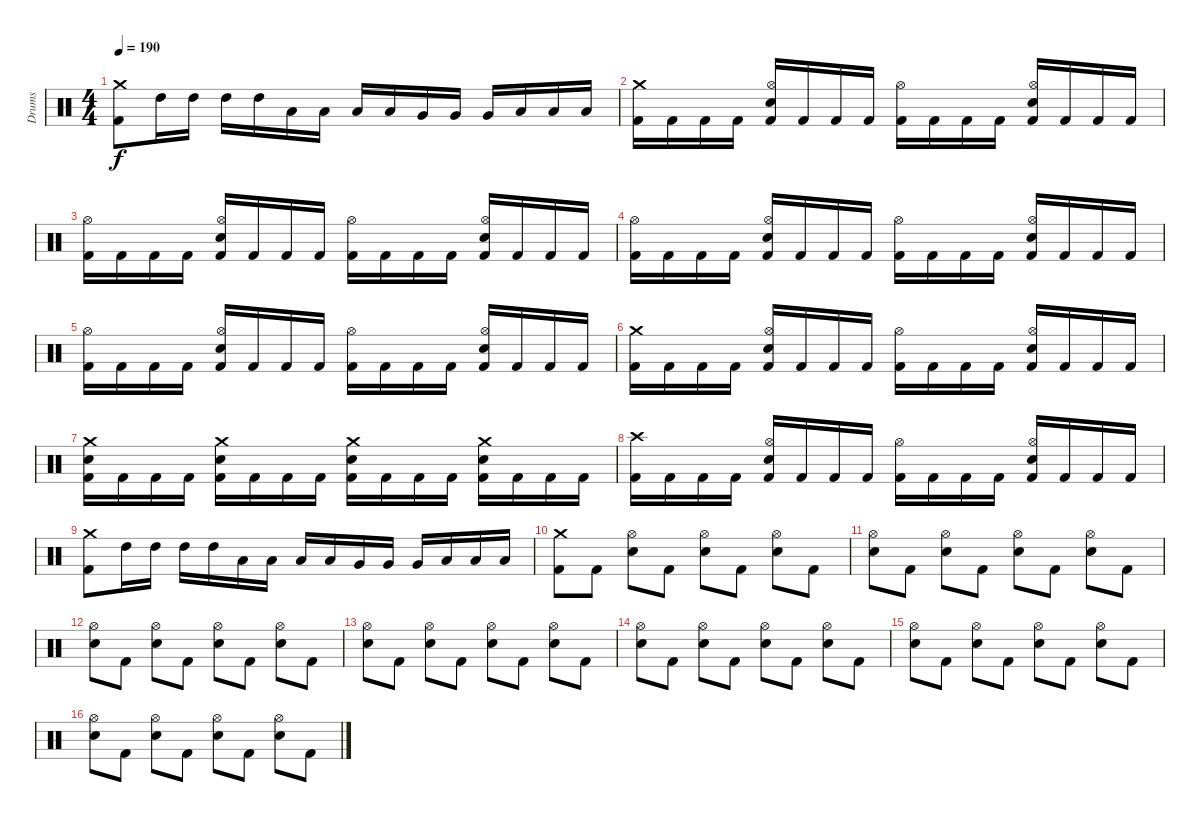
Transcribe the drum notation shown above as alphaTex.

\track ("Drums" "Drums") {instrument percussion}
\staff {score}
\articulation defaults
\ts (4 4)
\tempo 190
\clef neutral
\ks c
("Crash medium (hit)" "Kick (hit) 2").8{dy f} "High Tom (hit)".16 "High Tom (hit)".16 "High Tom (hit)".16 "High Tom (hit)".16 "Low Tom (hit)".16 "Low Tom (hit)".16 "Low Tom (hit)".16 "Low Tom (hit)".16 "Very Low Tom (hit)".16 "Very Low Tom (hit)".16 "Very Low Tom (hit)".16 "Low Floor Tom (hit)".16 "Low Floor Tom (hit)".16 "Low Floor Tom (hit)".16 |
("Crash medium (hit)" "Kick (hit) 2").16 "Kick (hit) 2".16 "Kick (hit) 2".16 "Kick (hit) 2".16 ("Hi-Hat (open)" "Electric Snare (hit)" "Kick (hit) 2").16 "Kick (hit) 2".16 "Kick (hit) 2".16 "Kick (hit) 2".16 ("Hi-Hat (open)" "Kick (hit) 2").16 "Kick (hit) 2".16 "Kick (hit) 2".16 "Kick (hit) 2".16 ("Hi-Hat (open)" "Electric Snare (hit)" "Kick (hit) 2").16 "Kick (hit) 2".16 "Kick (hit) 2".16 "Kick (hit) 2".16 |
("Hi-Hat (open)" "Kick (hit) 2").16 "Kick (hit) 2".16 "Kick (hit) 2".16 "Kick (hit) 2".16 ("Hi-Hat (open)" "Electric Snare (hit)" "Kick (hit) 2").16 "Kick (hit) 2".16 "Kick (hit) 2".16 "Kick (hit) 2".16 ("Hi-Hat (open)" "Kick (hit) 2").16 "Kick (hit) 2".16 "Kick (hit) 2".16 "Kick (hit) 2".16 ("Hi-Hat (open)" "Electric Snare (hit)" "Kick (hit) 2").16 "Kick (hit) 2".16 "Kick (hit) 2".16 "Kick (hit) 2".16 |
("Hi-Hat (open)" "Kick (hit) 2").16 "Kick (hit) 2".16 "Kick (hit) 2".16 "Kick (hit) 2".16 ("Hi-Hat (open)" "Electric Snare (hit)" "Kick (hit) 2").16 "Kick (hit) 2".16 "Kick (hit) 2".16 "Kick (hit) 2".16 ("Hi-Hat (open)" "Kick (hit) 2").16 "Kick (hit) 2".16 "Kick (hit) 2".16 "Kick (hit) 2".16 ("Hi-Hat (open)" "Electric Snare (hit)" "Kick (hit) 2").16 "Kick (hit) 2".16 "Kick (hit) 2".16 "Kick (hit) 2".16 |
("Hi-Hat (open)" "Kick (hit) 2").16 "Kick (hit) 2".16 "Kick (hit) 2".16 "Kick (hit) 2".16 ("Hi-Hat (open)" "Electric Snare (hit)" "Kick (hit) 2").16 "Kick (hit) 2".16 "Kick (hit) 2".16 "Kick (hit) 2".16 ("Hi-Hat (open)" "Kick (hit) 2").16 "Kick (hit) 2".16 "Kick (hit) 2".16 "Kick (hit) 2".16 ("Hi-Hat (open)" "Electric Snare (hit)" "Kick (hit) 2").16 "Kick (hit) 2".16 "Kick (hit) 2".16 "Kick (hit) 2".16 |
("Crash medium (hit)" "Kick (hit) 2").16 "Kick (hit) 2".16 "Kick (hit) 2".16 "Kick (hit) 2".16 ("Hi-Hat (open)" "Electric Snare (hit)" "Kick (hit) 2").16 "Kick (hit) 2".16 "Kick (hit) 2".16 "Kick (hit) 2".16 ("Hi-Hat (open)" "Kick (hit) 2").16 "Kick (hit) 2".16 "Kick (hit) 2".16 "Kick (hit) 2".16 ("Hi-Hat (open)" "Electric Snare (hit)" "Kick (hit) 2").16 "Kick (hit) 2".16 "Kick (hit) 2".16 "Kick (hit) 2".16 |
("Crash medium (hit)" "Electric Snare (hit)" "Kick (hit) 2").16 "Kick (hit) 2".16 "Kick (hit) 2".16 "Kick (hit) 2".16 ("Crash medium (hit)" "Electric Snare (hit)" "Kick (hit) 2").16 "Kick (hit) 2".16 "Kick (hit) 2".16 "Kick (hit) 2".16 ("Crash medium (hit)" "Electric Snare (hit)" "Kick (hit) 2").16 "Kick (hit) 2".16 "Kick (hit) 2".16 "Kick (hit) 2".16 ("Crash medium (hit)" "Electric Snare (hit)" "Kick (hit) 2").16 "Kick (hit) 2".16 "Kick (hit) 2".16 "Kick (hit) 2".16 |
("Crash high (hit)" "Kick (hit) 2").16 "Kick (hit) 2".16 "Kick (hit) 2".16 "Kick (hit) 2".16 ("Hi-Hat (open)" "Electric Snare (hit)" "Kick (hit) 2").16 "Kick (hit) 2".16 "Kick (hit) 2".16 "Kick (hit) 2".16 ("Hi-Hat (open)" "Kick (hit) 2").16 "Kick (hit) 2".16 "Kick (hit) 2".16 "Kick (hit) 2".16 ("Hi-Hat (open)" "Electric Snare (hit)" "Kick (hit) 2").16 "Kick (hit) 2".16 "Kick (hit) 2".16 "Kick (hit) 2".16 |
("Crash medium (hit)" "Kick (hit) 2").8 "High Tom (hit)".16 "High Tom (hit)".16 "High Tom (hit)".16 "High Tom (hit)".16 "Low Tom (hit)".16 "Low Tom (hit)".16 "Low Tom (hit)".16 "Low Tom (hit)".16 "Very Low Tom (hit)".16 "Very Low Tom (hit)".16 "Very Low Tom (hit)".16 "Low Floor Tom (hit)".16 "Low Floor Tom (hit)".16 "Low Floor Tom (hit)".16 |
("Crash medium (hit)" "Kick (hit) 2").8 "Kick (hit) 2".8 ("Hi-Hat (open)" "Electric Snare (hit)").8 "Kick (hit) 2".8 ("Hi-Hat (open)" "Electric Snare (hit)").8 "Kick (hit) 2".8 ("Hi-Hat (open)" "Electric Snare (hit)").8 "Kick (hit) 2".8 |
("Hi-Hat (open)" "Electric Snare (hit)").8 "Kick (hit) 2".8 ("Hi-Hat (open)" "Electric Snare (hit)").8 "Kick (hit) 2".8 ("Hi-Hat (open)" "Electric Snare (hit)").8 "Kick (hit) 2".8 ("Hi-Hat (open)" "Electric Snare (hit)").8 "Kick (hit) 2".8 |
("Hi-Hat (open)" "Electric Snare (hit)").8 "Kick (hit) 2".8 ("Hi-Hat (open)" "Electric Snare (hit)").8 "Kick (hit) 2".8 ("Hi-Hat (open)" "Electric Snare (hit)").8 "Kick (hit) 2".8 ("Hi-Hat (open)" "Electric Snare (hit)").8 "Kick (hit) 2".8 |
("Hi-Hat (open)" "Electric Snare (hit)").8 "Kick (hit) 2".8 ("Hi-Hat (open)" "Electric Snare (hit)").8 "Kick (hit) 2".8 ("Hi-Hat (open)" "Electric Snare (hit)").8 "Kick (hit) 2".8 ("Hi-Hat (open)" "Electric Snare (hit)").8 "Kick (hit) 2".8 |
("Hi-Hat (open)" "Electric Snare (hit)").8 "Kick (hit) 2".8 ("Hi-Hat (open)" "Electric Snare (hit)").8 "Kick (hit) 2".8 ("Hi-Hat (open)" "Electric Snare (hit)").8 "Kick (hit) 2".8 ("Hi-Hat (open)" "Electric Snare (hit)").8 "Kick (hit) 2".8 |
("Hi-Hat (open)" "Electric Snare (hit)").8 "Kick (hit) 2".8 ("Hi-Hat (open)" "Electric Snare (hit)").8 "Kick (hit) 2".8 ("Hi-Hat (open)" "Electric Snare (hit)").8 "Kick (hit) 2".8 ("Hi-Hat (open)" "Electric Snare (hit)").8 "Kick (hit) 2".8 |
("Hi-Hat (open)" "Electric Snare (hit)").8 "Kick (hit) 2".8 ("Hi-Hat (open)" "Electric Snare (hit)").8 "Kick (hit) 2".8 ("Hi-Hat (open)" "Electric Snare (hit)").8 "Kick (hit) 2".8 ("Hi-Hat (open)" "Electric Snare (hit)").8 "Kick (hit) 2".8
